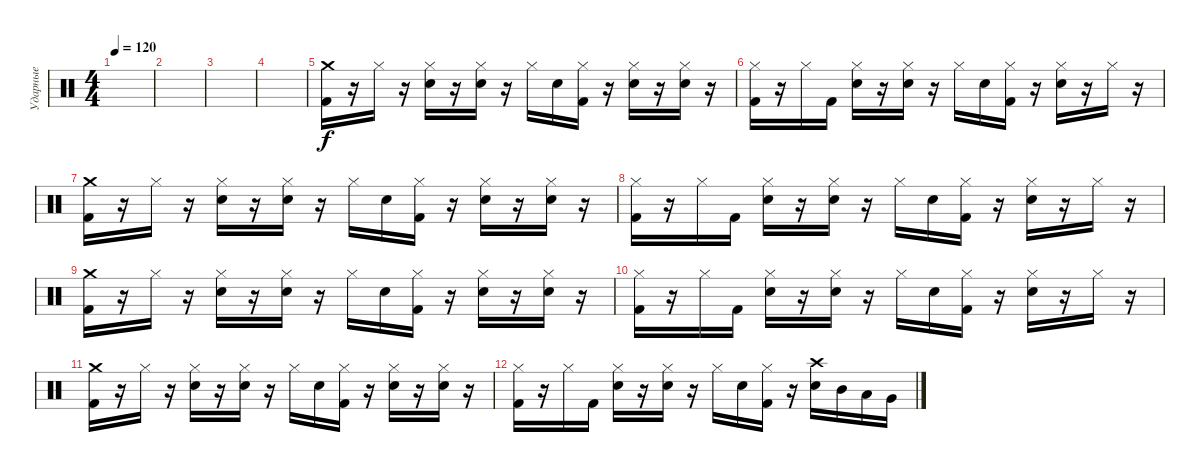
\track ("Ударные" "Ударные") {instrument percussion}
\staff {score}
\articulation defaults
\ts (4 4)
\tempo 120
\clef neutral
\ks c
|
|
|
|
("Crash medium (hit)" "Kick (hit) 2").16 r.16 "Hi-Hat (closed)".16 r.16 ("Hi-Hat (closed)" "Snare (hit) 2").16 r.16 ("Hi-Hat (closed)" "Snare (hit) 2").16 r.16 "Hi-Hat (closed)".16 "Snare (hit) 2".16 ("Hi-Hat (closed)" "Kick (hit) 2").16 r.16 ("Hi-Hat (closed)" "Snare (hit) 2").16 r.16 ("Hi-Hat (closed)" "Snare (hit) 2").16 r.16 |
("Hi-Hat (closed)" "Kick (hit) 2").16 r.16 "Hi-Hat (closed)".16 "Kick (hit) 2".16 ("Hi-Hat (closed)" "Snare (hit) 2").16 r.16 ("Hi-Hat (closed)" "Snare (hit) 2").16 r.16 "Hi-Hat (closed)".16 "Snare (hit) 2".16 ("Hi-Hat (closed)" "Kick (hit) 2").16 r.16 ("Hi-Hat (closed)" "Snare (hit) 2").16 r.16 "Hi-Hat (closed)".16 r.16 |
("Crash medium (hit)" "Kick (hit) 2").16 r.16 "Hi-Hat (closed)".16 r.16 ("Hi-Hat (closed)" "Snare (hit) 2").16 r.16 ("Hi-Hat (closed)" "Snare (hit) 2").16 r.16 "Hi-Hat (closed)".16 "Snare (hit) 2".16 ("Hi-Hat (closed)" "Kick (hit) 2").16 r.16 ("Hi-Hat (closed)" "Snare (hit) 2").16 r.16 ("Hi-Hat (closed)" "Snare (hit) 2").16 r.16 |
("Hi-Hat (closed)" "Kick (hit) 2").16 r.16 "Hi-Hat (closed)".16 "Kick (hit) 2".16 ("Hi-Hat (closed)" "Snare (hit) 2").16 r.16 ("Hi-Hat (closed)" "Snare (hit) 2").16 r.16 "Hi-Hat (closed)".16 "Snare (hit) 2".16 ("Hi-Hat (closed)" "Kick (hit) 2").16 r.16 ("Hi-Hat (closed)" "Snare (hit) 2").16 r.16 "Hi-Hat (closed)".16 r.16 |
("Crash medium (hit)" "Kick (hit) 2").16 r.16 "Hi-Hat (closed)".16 r.16 ("Hi-Hat (closed)" "Snare (hit) 2").16 r.16 ("Hi-Hat (closed)" "Snare (hit) 2").16 r.16 "Hi-Hat (closed)".16 "Snare (hit) 2".16 ("Hi-Hat (closed)" "Kick (hit) 2").16 r.16 ("Hi-Hat (closed)" "Snare (hit) 2").16 r.16 ("Hi-Hat (closed)" "Snare (hit) 2").16 r.16 |
("Hi-Hat (closed)" "Kick (hit) 2").16 r.16 "Hi-Hat (closed)".16 "Kick (hit) 2".16 ("Hi-Hat (closed)" "Snare (hit) 2").16 r.16 ("Hi-Hat (closed)" "Snare (hit) 2").16 r.16 "Hi-Hat (closed)".16 "Snare (hit) 2".16 ("Hi-Hat (closed)" "Kick (hit) 2").16 r.16 ("Hi-Hat (closed)" "Snare (hit) 2").16 r.16 "Hi-Hat (closed)".16 r.16 |
("Crash medium (hit)" "Kick (hit) 2").16 r.16 "Hi-Hat (closed)".16 r.16 ("Hi-Hat (closed)" "Snare (hit) 2").16 r.16 ("Hi-Hat (closed)" "Snare (hit) 2").16 r.16 "Hi-Hat (closed)".16 "Snare (hit) 2".16 ("Hi-Hat (closed)" "Kick (hit) 2").16 r.16 ("Hi-Hat (closed)" "Snare (hit) 2").16 r.16 ("Hi-Hat (closed)" "Snare (hit) 2").16 r.16 |
("Hi-Hat (closed)" "Kick (hit) 2").16 r.16 "Hi-Hat (closed)".16 "Kick (hit) 2".16 ("Hi-Hat (closed)" "Snare (hit) 2").16 r.16 ("Hi-Hat (closed)" "Snare (hit) 2").16 r.16 "Hi-Hat (closed)".16 "Snare (hit) 2".16 ("Hi-Hat (closed)" "Kick (hit) 2").16 r.16 ("Crash high (hit)" "Snare (hit) 2").16 "Mid Tom (hit)".16 "Low Tom (hit)".16 "Very Low Tom (hit)".16
